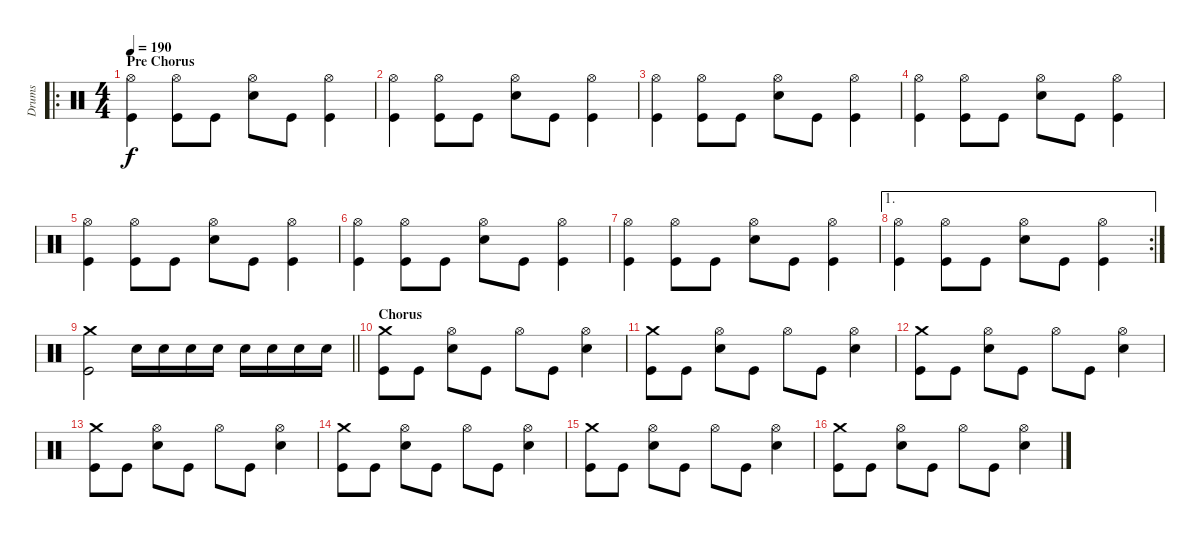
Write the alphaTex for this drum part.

\track ("Drums" "Drums") {instrument percussion}
\staff {score}
\articulation defaults
\ro
\ts (4 4)
\section ("" "Pre Chorus")
\tempo 190
\clef neutral
\ks c
("Hi-Hat (open)" "Kick (hit)").4{dy f} ("Hi-Hat (open)" "Kick (hit)").8 "Kick (hit)".8 ("Hi-Hat (open)" "Snare (hit) 2").8 "Kick (hit)".8 ("Hi-Hat (open)" "Kick (hit)").4 |
("Hi-Hat (open)" "Kick (hit)").4 ("Hi-Hat (open)" "Kick (hit)").8 "Kick (hit)".8 ("Hi-Hat (open)" "Snare (hit) 2").8 "Kick (hit)".8 ("Hi-Hat (open)" "Kick (hit)").4 |
("Hi-Hat (open)" "Kick (hit)").4 ("Hi-Hat (open)" "Kick (hit)").8 "Kick (hit)".8 ("Hi-Hat (open)" "Snare (hit) 2").8 "Kick (hit)".8 ("Hi-Hat (open)" "Kick (hit)").4 |
("Hi-Hat (open)" "Kick (hit)").4 ("Hi-Hat (open)" "Kick (hit)").8 "Kick (hit)".8 ("Hi-Hat (open)" "Snare (hit) 2").8 "Kick (hit)".8 ("Hi-Hat (open)" "Kick (hit)").4 |
("Hi-Hat (open)" "Kick (hit)").4 ("Hi-Hat (open)" "Kick (hit)").8 "Kick (hit)".8 ("Hi-Hat (open)" "Snare (hit) 2").8 "Kick (hit)".8 ("Hi-Hat (open)" "Kick (hit)").4 |
("Hi-Hat (open)" "Kick (hit)").4 ("Hi-Hat (open)" "Kick (hit)").8 "Kick (hit)".8 ("Hi-Hat (open)" "Snare (hit) 2").8 "Kick (hit)".8 ("Hi-Hat (open)" "Kick (hit)").4 |
("Hi-Hat (open)" "Kick (hit)").4 ("Hi-Hat (open)" "Kick (hit)").8 "Kick (hit)".8 ("Hi-Hat (open)" "Snare (hit) 2").8 "Kick (hit)".8 ("Hi-Hat (open)" "Kick (hit)").4 |
\ae 1
\rc 2
("Hi-Hat (open)" "Kick (hit)").4 ("Hi-Hat (open)" "Kick (hit)").8 "Kick (hit)".8 ("Hi-Hat (open)" "Snare (hit) 2").8 "Kick (hit)".8 ("Hi-Hat (open)" "Kick (hit)").4 |
\barLineRight lightlight
("Crash medium (hit)" "Kick (hit)").2 "Snare (hit) 2".16 "Snare (hit) 2".16 "Snare (hit) 2".16 "Snare (hit) 2".16 "Snare (hit) 2".16 "Snare (hit) 2".16 "Snare (hit) 2".16 "Snare (hit) 2".16 |
\section ("" "Chorus")
("Crash medium (hit)" "Kick (hit)").8 "Kick (hit)".8 ("Hi-Hat (open)" "Snare (hit) 2").8 "Kick (hit)".8 "Hi-Hat (open)".8 "Kick (hit)".8 ("Hi-Hat (open)" "Snare (hit) 2").4 |
("Crash medium (hit)" "Kick (hit)").8 "Kick (hit)".8 ("Hi-Hat (open)" "Snare (hit) 2").8 "Kick (hit)".8 "Hi-Hat (open)".8 "Kick (hit)".8 ("Hi-Hat (open)" "Snare (hit) 2").4 |
("Crash medium (hit)" "Kick (hit)").8 "Kick (hit)".8 ("Hi-Hat (open)" "Snare (hit) 2").8 "Kick (hit)".8 "Hi-Hat (open)".8 "Kick (hit)".8 ("Hi-Hat (open)" "Snare (hit) 2").4 |
("Crash medium (hit)" "Kick (hit)").8 "Kick (hit)".8 ("Hi-Hat (open)" "Snare (hit) 2").8 "Kick (hit)".8 "Hi-Hat (open)".8 "Kick (hit)".8 ("Hi-Hat (open)" "Snare (hit) 2").4 |
("Crash medium (hit)" "Kick (hit)").8 "Kick (hit)".8 ("Hi-Hat (open)" "Snare (hit) 2").8 "Kick (hit)".8 "Hi-Hat (open)".8 "Kick (hit)".8 ("Hi-Hat (open)" "Snare (hit) 2").4 |
("Crash medium (hit)" "Kick (hit)").8 "Kick (hit)".8 ("Hi-Hat (open)" "Snare (hit) 2").8 "Kick (hit)".8 "Hi-Hat (open)".8 "Kick (hit)".8 ("Hi-Hat (open)" "Snare (hit) 2").4 |
("Crash medium (hit)" "Kick (hit)").8 "Kick (hit)".8 ("Hi-Hat (open)" "Snare (hit) 2").8 "Kick (hit)".8 "Hi-Hat (open)".8 "Kick (hit)".8 ("Hi-Hat (open)" "Snare (hit) 2").4
